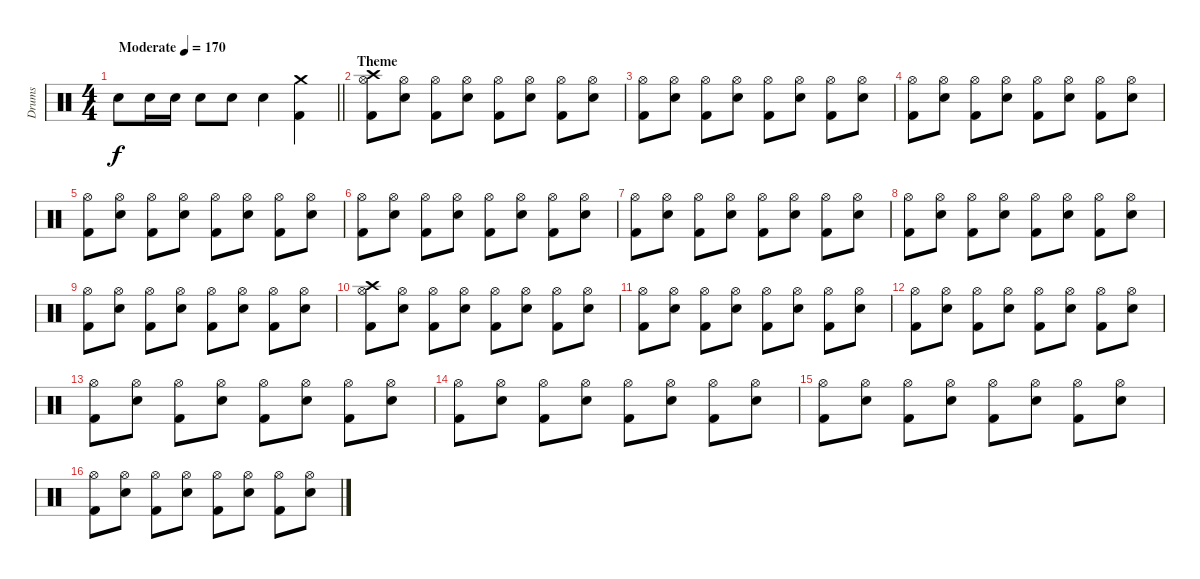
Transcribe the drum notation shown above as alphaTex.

\track ("Drums" "Drums") {instrument percussion}
\staff {score}
\articulation defaults
\ts (4 4)
\tempo (170 "Moderate")
\clef neutral
\barLineRight lightlight
\ks c "Snare (hit) 2".8{dy f} "Snare (hit) 2".16 "Snare (hit) 2".16 "Snare (hit) 2".8 "Snare (hit) 2".8 "Snare (hit) 2".4
("Crash medium (hit)" "Kick (hit) 2").4 |
\section ("" "Theme")
("Hi-Hat (open)" "Crash high (hit)" "Kick (hit) 2").8 ("Hi-Hat (open)" "Snare (hit) 2").8 ("Hi-Hat (open)" "Kick (hit) 2").8 ("Hi-Hat (open)" "Snare (hit) 2").8 ("Hi-Hat (open)" "Kick (hit) 2").8 ("Hi-Hat (open)" "Snare (hit) 2").8 ("Hi-Hat (open)" "Kick (hit) 2").8 ("Hi-Hat (open)" "Snare (hit) 2").8 |
("Hi-Hat (open)" "Kick (hit) 2").8 ("Hi-Hat (open)" "Snare (hit) 2").8 ("Hi-Hat (open)" "Kick (hit) 2").8 ("Hi-Hat (open)" "Snare (hit) 2").8 ("Hi-Hat (open)" "Kick (hit) 2").8 ("Hi-Hat (open)" "Snare (hit) 2").8 ("Hi-Hat (open)" "Kick (hit) 2").8 ("Hi-Hat (open)" "Snare (hit) 2").8 |
("Hi-Hat (open)" "Kick (hit) 2").8 ("Hi-Hat (open)" "Snare (hit) 2").8 ("Hi-Hat (open)" "Kick (hit) 2").8 ("Hi-Hat (open)" "Snare (hit) 2").8 ("Hi-Hat (open)" "Kick (hit) 2").8 ("Hi-Hat (open)" "Snare (hit) 2").8 ("Hi-Hat (open)" "Kick (hit) 2").8 ("Hi-Hat (open)" "Snare (hit) 2").8 |
("Hi-Hat (open)" "Kick (hit) 2").8 ("Hi-Hat (open)" "Snare (hit) 2").8 ("Hi-Hat (open)" "Kick (hit) 2").8 ("Hi-Hat (open)" "Snare (hit) 2").8 ("Hi-Hat (open)" "Kick (hit) 2").8 ("Hi-Hat (open)" "Snare (hit) 2").8 ("Hi-Hat (open)" "Kick (hit) 2").8 ("Hi-Hat (open)" "Snare (hit) 2").8 |
("Hi-Hat (open)" "Kick (hit) 2").8 ("Hi-Hat (open)" "Snare (hit) 2").8 ("Hi-Hat (open)" "Kick (hit) 2").8 ("Hi-Hat (open)" "Snare (hit) 2").8 ("Hi-Hat (open)" "Kick (hit) 2").8 ("Hi-Hat (open)" "Snare (hit) 2").8 ("Hi-Hat (open)" "Kick (hit) 2").8 ("Hi-Hat (open)" "Snare (hit) 2").8 |
("Hi-Hat (open)" "Kick (hit) 2").8 ("Hi-Hat (open)" "Snare (hit) 2").8 ("Hi-Hat (open)" "Kick (hit) 2").8 ("Hi-Hat (open)" "Snare (hit) 2").8 ("Hi-Hat (open)" "Kick (hit) 2").8 ("Hi-Hat (open)" "Snare (hit) 2").8 ("Hi-Hat (open)" "Kick (hit) 2").8 ("Hi-Hat (open)" "Snare (hit) 2").8 |
("Hi-Hat (open)" "Kick (hit) 2").8 ("Hi-Hat (open)" "Snare (hit) 2").8 ("Hi-Hat (open)" "Kick (hit) 2").8 ("Hi-Hat (open)" "Snare (hit) 2").8 ("Hi-Hat (open)" "Kick (hit) 2").8 ("Hi-Hat (open)" "Snare (hit) 2").8 ("Hi-Hat (open)" "Kick (hit) 2").8 ("Hi-Hat (open)" "Snare (hit) 2").8 |
("Hi-Hat (open)" "Kick (hit) 2").8 ("Hi-Hat (open)" "Snare (hit) 2").8 ("Hi-Hat (open)" "Kick (hit) 2").8 ("Hi-Hat (open)" "Snare (hit) 2").8 ("Hi-Hat (open)" "Kick (hit) 2").8 ("Hi-Hat (open)" "Snare (hit) 2").8 ("Hi-Hat (open)" "Kick (hit) 2").8 ("Hi-Hat (open)" "Snare (hit) 2").8 |
("Hi-Hat (open)" "Crash high (hit)" "Kick (hit) 2").8 ("Hi-Hat (open)" "Snare (hit) 2").8 ("Hi-Hat (open)" "Kick (hit) 2").8 ("Hi-Hat (open)" "Snare (hit) 2").8 ("Hi-Hat (open)" "Kick (hit) 2").8 ("Hi-Hat (open)" "Snare (hit) 2").8 ("Hi-Hat (open)" "Kick (hit) 2").8 ("Hi-Hat (open)" "Snare (hit) 2").8 |
("Hi-Hat (open)" "Kick (hit) 2").8 ("Hi-Hat (open)" "Snare (hit) 2").8 ("Hi-Hat (open)" "Kick (hit) 2").8 ("Hi-Hat (open)" "Snare (hit) 2").8 ("Hi-Hat (open)" "Kick (hit) 2").8 ("Hi-Hat (open)" "Snare (hit) 2").8 ("Hi-Hat (open)" "Kick (hit) 2").8 ("Hi-Hat (open)" "Snare (hit) 2").8 |
("Hi-Hat (open)" "Kick (hit) 2").8 ("Hi-Hat (open)" "Snare (hit) 2").8 ("Hi-Hat (open)" "Kick (hit) 2").8 ("Hi-Hat (open)" "Snare (hit) 2").8 ("Hi-Hat (open)" "Kick (hit) 2").8 ("Hi-Hat (open)" "Snare (hit) 2").8 ("Hi-Hat (open)" "Kick (hit) 2").8 ("Hi-Hat (open)" "Snare (hit) 2").8 |
("Hi-Hat (open)" "Kick (hit) 2").8 ("Hi-Hat (open)" "Snare (hit) 2").8 ("Hi-Hat (open)" "Kick (hit) 2").8 ("Hi-Hat (open)" "Snare (hit) 2").8 ("Hi-Hat (open)" "Kick (hit) 2").8 ("Hi-Hat (open)" "Snare (hit) 2").8 ("Hi-Hat (open)" "Kick (hit) 2").8 ("Hi-Hat (open)" "Snare (hit) 2").8 |
("Hi-Hat (open)" "Kick (hit) 2").8 ("Hi-Hat (open)" "Snare (hit) 2").8 ("Hi-Hat (open)" "Kick (hit) 2").8 ("Hi-Hat (open)" "Snare (hit) 2").8 ("Hi-Hat (open)" "Kick (hit) 2").8 ("Hi-Hat (open)" "Snare (hit) 2").8 ("Hi-Hat (open)" "Kick (hit) 2").8 ("Hi-Hat (open)" "Snare (hit) 2").8 |
("Hi-Hat (open)" "Kick (hit) 2").8 ("Hi-Hat (open)" "Snare (hit) 2").8 ("Hi-Hat (open)" "Kick (hit) 2").8 ("Hi-Hat (open)" "Snare (hit) 2").8 ("Hi-Hat (open)" "Kick (hit) 2").8 ("Hi-Hat (open)" "Snare (hit) 2").8 ("Hi-Hat (open)" "Kick (hit) 2").8 ("Hi-Hat (open)" "Snare (hit) 2").8 |
("Hi-Hat (open)" "Kick (hit) 2").8 ("Hi-Hat (open)" "Snare (hit) 2").8 ("Hi-Hat (open)" "Kick (hit) 2").8 ("Hi-Hat (open)" "Snare (hit) 2").8 ("Hi-Hat (open)" "Kick (hit) 2").8 ("Hi-Hat (open)" "Snare (hit) 2").8 ("Hi-Hat (open)" "Kick (hit) 2").8 ("Hi-Hat (open)" "Snare (hit) 2").8
